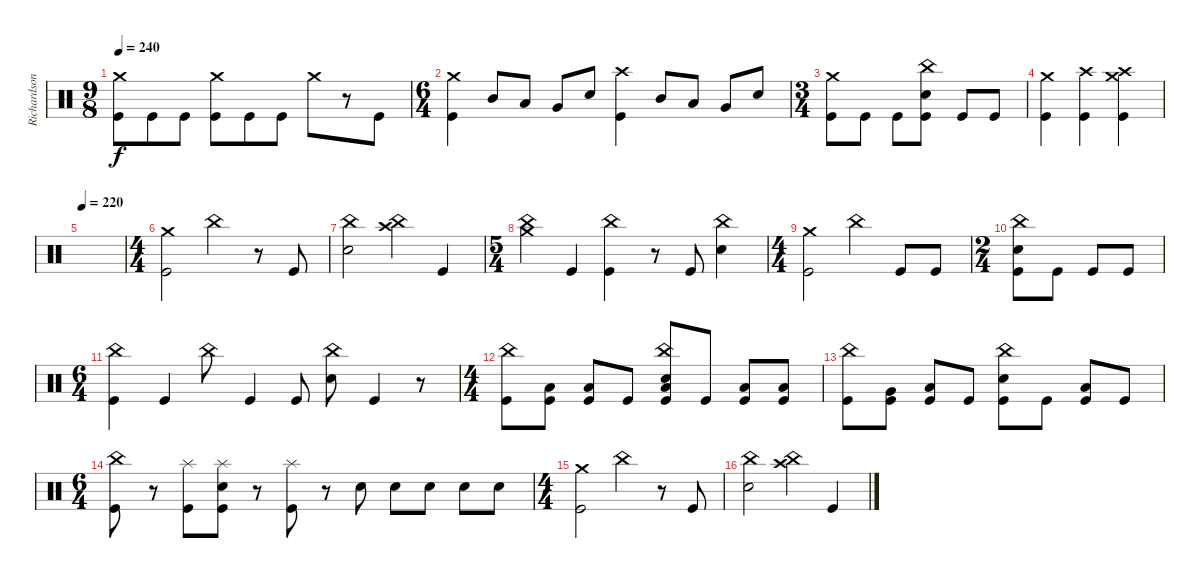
\track ("Richardson" "Richardson") {instrument percussion}
\staff {score}
\articulation defaults
\ts (9 8)
\tempo 240
\clef neutral
\ks c
("Crash medium (hit)" "Kick (hit)").8{dy f} "Kick (hit)".8 "Kick (hit)".8 ("Crash medium (hit)" "Kick (hit)").8 "Kick (hit)".8 "Kick (hit)".8 "Crash medium (hit)".8 r.8 "Kick (hit)".8 |
\ts (6 4)
("Crash medium (hit)" "Kick (hit)").4 "Mid Tom (hit)".8 "Low Tom (hit)".8 "Very Low Tom (hit)".8 "Electric Snare (hit)".8 ("Crash high (hit)" "Kick (hit)").4 "Mid Tom (hit)".8 "Low Tom (hit)".8 "Very Low Tom (hit)".8 "Electric Snare (hit)".8 |
\ts (3 4)
("Crash medium (hit)" "Kick (hit)").8 "Kick (hit)".8 "Kick (hit)".8 ("China (hit)" "Electric Snare (hit)" "Kick (hit)").8 "Kick (hit)".8 "Kick (hit)".8 |
("Crash medium (hit)" "Kick (hit)").4 ("Crash high (hit)" "Kick (hit)").4 ("Crash medium (hit)" "Crash high (hit)" "Kick (hit)").4 |
\tempo 220
|
\ts (4 4)
("Crash medium (hit)" "Kick (hit)").2 "China (hit)".4 r.8 "Kick (hit)".8 |
("China (hit)" "Electric Snare (hit)").2 ("China (hit)" "Crash high (hit)").4 "Kick (hit)".4 |
\ts (5 4)
("China (hit)" "Crash medium (hit)").4 "Kick (hit)".4 ("China (hit)" "Kick (hit)").4 r.8 "Kick (hit)".8 ("China (hit)" "Electric Snare (hit)").4 |
\ts (4 4)
("Crash medium (hit)" "Kick (hit)").2 "China (hit)".4 "Kick (hit)".8 "Kick (hit)".8 |
\ts (2 4)
("China (hit)" "Electric Snare (hit)" "Kick (hit)").8 "Kick (hit)".8 "Kick (hit)".8 "Kick (hit)".8 |
\ts (6 4)
("China (hit)" "Kick (hit)").4 "Kick (hit)".4 "China (hit)".8 "Kick (hit)".4 "Kick (hit)".8 ("China (hit)" "Electric Snare (hit)").8 "Kick (hit)".4 r.8 |
\ts (4 4)
("China (hit)" "Kick (hit)").8 ("Low Tom (hit)" "Kick (hit)").8 ("Low Floor Tom (hit)" "Kick (hit)").8 "Kick (hit)".8 ("China (hit)" "Electric Snare (hit)" "Low Floor Tom (hit)" "Kick (hit)").8 "Kick (hit)".8 ("Low Floor Tom (hit)" "Kick (hit)").8 ("Low Tom (hit)" "Kick (hit)").8 |
("China (hit)" "Kick (hit)").8 ("Very Low Tom (hit)" "Kick (hit)").8 ("Low Floor Tom (hit)" "Kick (hit)").8 "Kick (hit)".8 ("China (hit)" "Electric Snare (hit)" "Kick (hit)").8 "Kick (hit)".8 ("Low Floor Tom (hit)" "Kick (hit)").8 "Kick (hit)".8 |
\ts (6 4)
("China (hit)" "Kick (hit)").8 r.8 ("Splash (hit)" "Kick (hit)").8 ("Splash (hit)" "Electric Snare (hit)" "Kick (hit)").8 r.8 ("Splash (hit)" "Kick (hit)").8 r.8 "Electric Snare (hit)".8 "Electric Snare (hit)".8 "Electric Snare (hit)".8 "Electric Snare (hit)".8 "Electric Snare (hit)".8 |
\ts (4 4)
("Crash medium (hit)" "Kick (hit)").2 "China (hit)".4 r.8 "Kick (hit)".8 |
("China (hit)" "Electric Snare (hit)").2 ("China (hit)" "Crash high (hit)").4 "Kick (hit)".4
